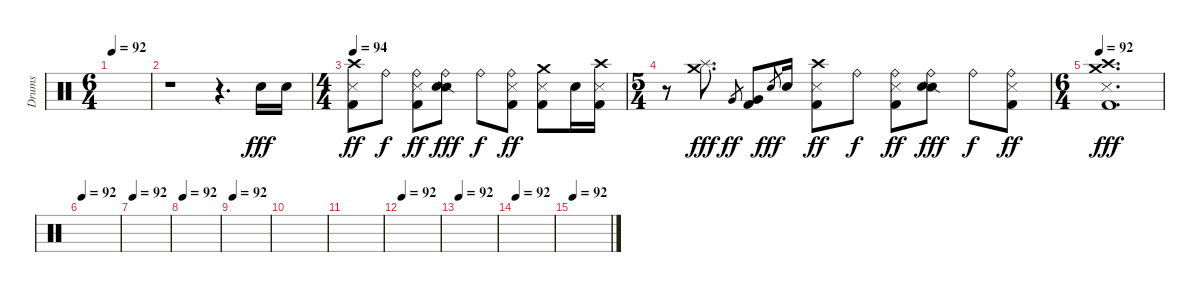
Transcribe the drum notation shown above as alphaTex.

\track ("Drums" "Drums") {instrument percussion}
\staff {score}
\articulation defaults
\ts (6 4)
\tempo 92
\clef neutral
\ks c
|
r.1 r.4{d} "Electric Snare (hit)".16{dy fff} "Electric Snare (hit)".16 |
\ts (4 4)
\tempo 94
("Crash high (hit)" "Metronome (hit)" "Kick (hit) 2").8{dy ff} "Ride (bell)".8{dy f} ("Ride (bell)" "Metronome (hit)" "Kick (hit) 2").8{dy ff} ("Ride (bell)" "Snare (side stick) 2" "Electric Snare (hit)").8{dy fff} "Ride (bell)".8{dy f} ("Ride (bell)" "Metronome (hit)" "Kick (hit) 2").8{dy ff} ("Crash medium (hit)" "Metronome (hit)" "Kick (hit) 2").8 "Electric Snare (hit)".16 ("Crash high (hit)" "Metronome (hit)" "Kick (hit) 2").16 |
\ts (5 4)
r.8 ("Crash medium (hit)" "Splash (hit)").8{d dy fff} "Very Low Tom (hit)".8{gr dy ff} ("Very Low Tom (hit)" "Kick (hit) 2").8 "Electric Snare (hit)".8{gr dy fff} "Electric Snare (hit)".16 ("Crash high (hit)" "Metronome (hit)" "Kick (hit) 2").8{dy ff} "Ride (bell)".8{dy f} ("Ride (bell)" "Metronome (hit)" "Kick (hit) 2").8{dy ff} ("Ride (bell)" "Snare (side stick) 2" "Electric Snare (hit)").8{dy fff} "Ride (bell)".8{dy f} ("Ride (bell)" "Metronome (hit)" "Kick (hit) 2").8{dy ff} |
\ts (6 4)
\tempo 92
("Crash high (hit)" "Crash medium (hit)" "Metronome (hit)" "Kick (hit) 2").1{d dy fff} |
\tempo 92
|
\tempo 92
|
\tempo 92
|
\tempo 92
|
|
|
\tempo 92
|
\tempo 92
|
\tempo 92
|
\tempo 92
